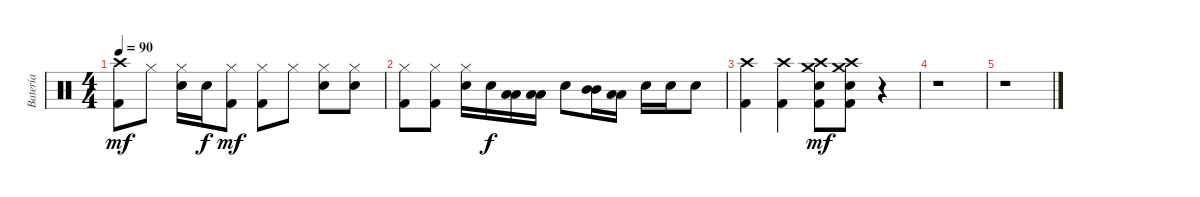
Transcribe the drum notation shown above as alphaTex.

\track ("Batería" "Batería") {instrument percussion}
\staff {score}
\articulation defaults
\ts (4 4)
\tempo 90
\clef neutral
\ks c
("Crash high (hit)" "Kick (hit) 2").8{dy mf} "Hi-Hat (closed)".8 ("Hi-Hat (closed)" "Snare (hit) 2").16 "Snare (hit) 2".16{dy f} ("Hi-Hat (closed)" "Kick (hit) 2").8{dy mf} ("Hi-Hat (closed)" "Kick (hit) 2").8 "Hi-Hat (closed)".8 ("Hi-Hat (closed)" "Snare (hit) 2").8 ("Hi-Hat (closed)" "Snare (hit) 2").8 |
("Hi-Hat (closed)" "Kick (hit) 2").8 ("Hi-Hat (closed)" "Kick (hit) 2").8 ("Hi-Hat (closed)" "Snare (hit) 2").16 "Snare (hit) 2".16{dy f} ("Low Tom (hit)" "Low Tom (hit)").16 ("Low Tom (hit)" "Low Tom (hit)").16 "Snare (hit) 2".8 ("Mid Tom (hit)" "Mid Tom (hit)").16 ("Low Tom (hit)" "Low Tom (hit)").16 "Snare (hit) 2".16 "Snare (hit) 2".16 "Snare (hit) 2".8 |
("Crash high (hit)" "Kick (hit) 2").4 ("Crash high (hit)" "Kick (hit) 2").4 ("Crash medium (hit)" "Crash high (hit)" "Snare (hit) 2" "Kick (hit) 2").8{dy mf} ("Crash medium (hit)" "Crash high (hit)" "Snare (hit) 2" "Kick (hit) 2").8 r.4 |
r.1 |
r.1
